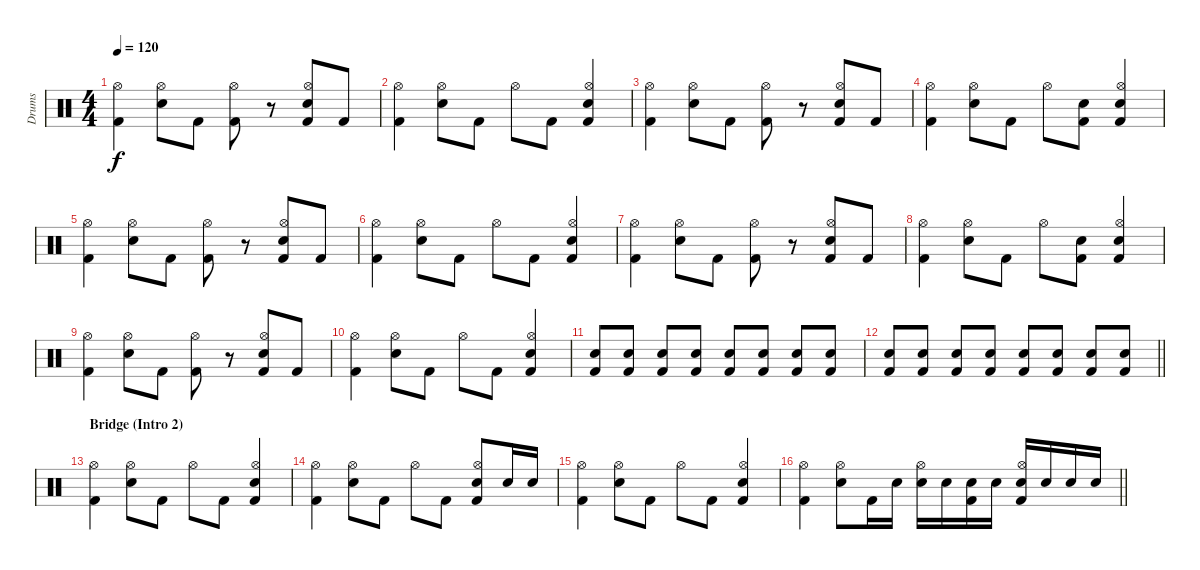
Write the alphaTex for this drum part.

\track ("Drums" "Drums") {instrument percussion}
\staff {score}
\articulation defaults
\ts (4 4)
\tempo 120
\clef neutral
\ks c
("Kick (hit) 2" "Hi-Hat (open)").4{dy f} ("Snare (hit) 2" "Hi-Hat (open)").8 "Kick (hit) 2".8 ("Kick (hit) 2" "Hi-Hat (open)").8 r.8 ("Kick (hit) 2" "Snare (hit) 2" "Hi-Hat (open)").8 "Kick (hit) 2".8 |
("Kick (hit) 2" "Hi-Hat (open)").4 ("Snare (hit) 2" "Hi-Hat (open)").8 "Kick (hit) 2".8 "Hi-Hat (open)".8 "Kick (hit) 2".8 ("Kick (hit) 2" "Snare (hit) 2" "Hi-Hat (open)").4 |
("Kick (hit) 2" "Hi-Hat (open)").4 ("Snare (hit) 2" "Hi-Hat (open)").8 "Kick (hit) 2".8 ("Kick (hit) 2" "Hi-Hat (open)").8 r.8 ("Kick (hit) 2" "Snare (hit) 2" "Hi-Hat (open)").8 "Kick (hit) 2".8 |
("Kick (hit) 2" "Hi-Hat (open)").4 ("Snare (hit) 2" "Hi-Hat (open)").8 "Kick (hit) 2".8 "Hi-Hat (open)".8 ("Kick (hit) 2" "Snare (hit) 2").8 ("Kick (hit) 2" "Snare (hit) 2" "Hi-Hat (open)").4 |
("Kick (hit) 2" "Hi-Hat (open)").4 ("Snare (hit) 2" "Hi-Hat (open)").8 "Kick (hit) 2".8 ("Kick (hit) 2" "Hi-Hat (open)").8 r.8 ("Kick (hit) 2" "Snare (hit) 2" "Hi-Hat (open)").8 "Kick (hit) 2".8 |
("Kick (hit) 2" "Hi-Hat (open)").4 ("Snare (hit) 2" "Hi-Hat (open)").8 "Kick (hit) 2".8 "Hi-Hat (open)".8 "Kick (hit) 2".8 ("Kick (hit) 2" "Snare (hit) 2" "Hi-Hat (open)").4 |
("Kick (hit) 2" "Hi-Hat (open)").4 ("Snare (hit) 2" "Hi-Hat (open)").8 "Kick (hit) 2".8 ("Kick (hit) 2" "Hi-Hat (open)").8 r.8 ("Kick (hit) 2" "Snare (hit) 2" "Hi-Hat (open)").8 "Kick (hit) 2".8 |
("Kick (hit) 2" "Hi-Hat (open)").4 ("Snare (hit) 2" "Hi-Hat (open)").8 "Kick (hit) 2".8 "Hi-Hat (open)".8 ("Kick (hit) 2" "Snare (hit) 2").8 ("Kick (hit) 2" "Snare (hit) 2" "Hi-Hat (open)").4 |
("Kick (hit) 2" "Hi-Hat (open)").4 ("Snare (hit) 2" "Hi-Hat (open)").8 "Kick (hit) 2".8 ("Kick (hit) 2" "Hi-Hat (open)").8 r.8 ("Kick (hit) 2" "Snare (hit) 2" "Hi-Hat (open)").8 "Kick (hit) 2".8 |
("Kick (hit) 2" "Hi-Hat (open)").4 ("Snare (hit) 2" "Hi-Hat (open)").8 "Kick (hit) 2".8 "Hi-Hat (open)".8 "Kick (hit) 2".8 ("Kick (hit) 2" "Snare (hit) 2" "Hi-Hat (open)").4 |
("Kick (hit) 2" "Snare (hit) 2").8 ("Kick (hit) 2" "Snare (hit) 2").8 ("Kick (hit) 2" "Snare (hit) 2").8 ("Kick (hit) 2" "Snare (hit) 2").8 ("Kick (hit) 2" "Snare (hit) 2").8 ("Kick (hit) 2" "Snare (hit) 2").8 ("Kick (hit) 2" "Snare (hit) 2").8 ("Kick (hit) 2" "Snare (hit) 2").8 |
\barLineRight lightlight
("Kick (hit) 2" "Snare (hit) 2").8 ("Kick (hit) 2" "Snare (hit) 2").8 ("Kick (hit) 2" "Snare (hit) 2").8 ("Kick (hit) 2" "Snare (hit) 2").8 ("Kick (hit) 2" "Snare (hit) 2").8 ("Kick (hit) 2" "Snare (hit) 2").8 ("Kick (hit) 2" "Snare (hit) 2").8 ("Kick (hit) 2" "Snare (hit) 2").8 |
\section ("" "Bridge (Intro 2)")
("Kick (hit) 2" "Hi-Hat (open)").4 ("Snare (hit) 2" "Hi-Hat (open)").8 "Kick (hit) 2".8 "Hi-Hat (open)".8 "Kick (hit) 2".8 ("Kick (hit) 2" "Snare (hit) 2" "Hi-Hat (open)").4 |
("Kick (hit) 2" "Hi-Hat (open)").4 ("Snare (hit) 2" "Hi-Hat (open)").8 "Kick (hit) 2".8 "Hi-Hat (open)".8 "Kick (hit) 2".8 ("Kick (hit) 2" "Snare (hit) 2" "Hi-Hat (open)").8 "Snare (hit) 2".16 "Snare (hit) 2".16 |
("Kick (hit) 2" "Hi-Hat (open)").4 ("Snare (hit) 2" "Hi-Hat (open)").8 "Kick (hit) 2".8 "Hi-Hat (open)".8 "Kick (hit) 2".8 ("Kick (hit) 2" "Snare (hit) 2" "Hi-Hat (open)").4 |
\barLineRight lightlight
("Kick (hit) 2" "Hi-Hat (open)").4 ("Snare (hit) 2" "Hi-Hat (open)").8 "Kick (hit) 2".16 "Snare (hit) 2".16 ("Snare (hit) 2" "Hi-Hat (open)").16 "Snare (hit) 2".16 ("Kick (hit) 2" "Snare (hit) 2").16 "Snare (hit) 2".16 ("Hi-Hat (open)" "Snare (hit) 2" "Kick (hit) 2").16 "Snare (hit) 2".16 "Snare (hit) 2".16 "Snare (hit) 2".16
